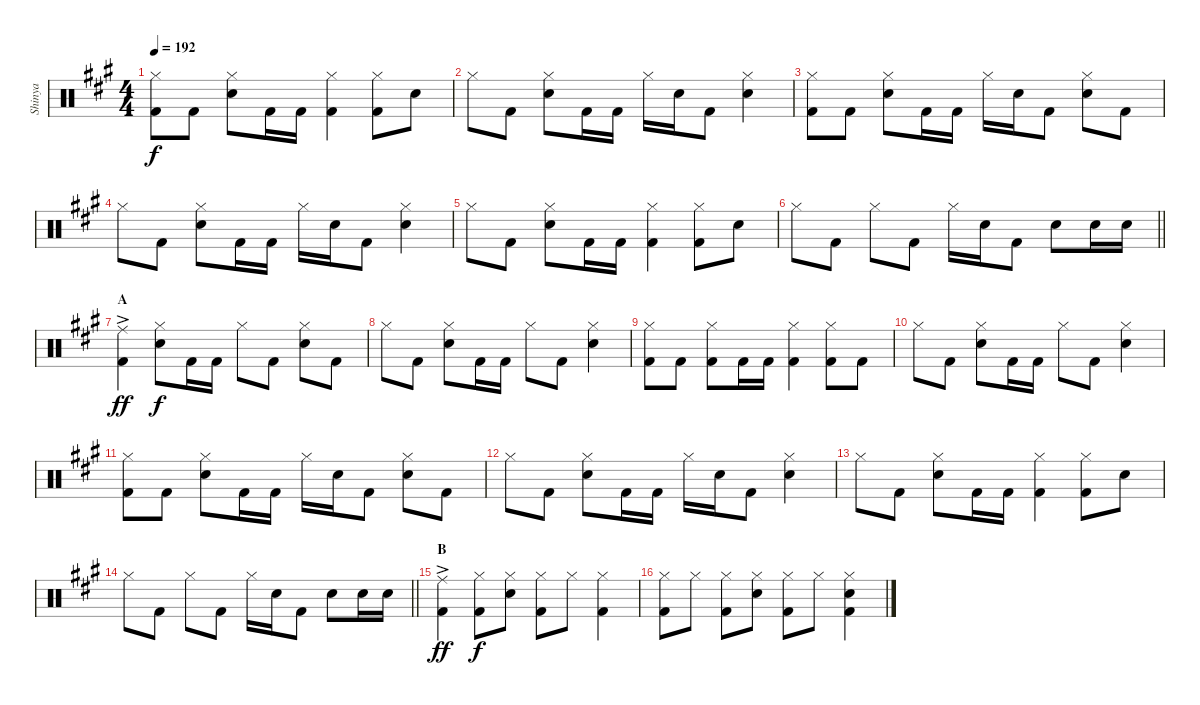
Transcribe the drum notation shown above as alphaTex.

\track ("Shinya" "Shinya") {instrument percussion}
\staff {score}
\articulation defaults
\ts (4 4)
\tempo 192
\clef neutral
\ks a
("Hi-Hat (closed)" "Kick (hit) 2").8{dy f} "Kick (hit) 2".8 ("Hi-Hat (closed)" "Snare (hit) 2").8 "Kick (hit) 2".16 "Kick (hit) 2".16 ("Hi-Hat (closed)" "Kick (hit) 2").4 ("Hi-Hat (closed)" "Kick (hit) 2").8 "Snare (hit) 2".8 |
"Hi-Hat (closed)".8 "Kick (hit) 2".8 ("Hi-Hat (closed)" "Snare (hit) 2").8 "Kick (hit) 2".16 "Kick (hit) 2".16 "Hi-Hat (closed)".16 "Snare (hit) 2".16 "Kick (hit) 2".8 ("Hi-Hat (closed)" "Snare (hit) 2").4 |
("Hi-Hat (closed)" "Kick (hit) 2").8 "Kick (hit) 2".8 ("Hi-Hat (closed)" "Snare (hit) 2").8 "Kick (hit) 2".16 "Kick (hit) 2".16 "Hi-Hat (closed)".16 "Snare (hit) 2".16 "Kick (hit) 2".8 ("Hi-Hat (closed)" "Snare (hit) 2").8 "Kick (hit) 2".8 |
"Hi-Hat (closed)".8 "Kick (hit) 2".8 ("Hi-Hat (closed)" "Snare (hit) 2").8 "Kick (hit) 2".16 "Kick (hit) 2".16 "Hi-Hat (closed)".16 "Snare (hit) 2".16 "Kick (hit) 2".8 ("Hi-Hat (closed)" "Snare (hit) 2").4 |
"Hi-Hat (closed)".8 "Kick (hit) 2".8 ("Hi-Hat (closed)" "Snare (hit) 2").8 "Kick (hit) 2".16 "Kick (hit) 2".16 ("Hi-Hat (closed)" "Kick (hit) 2").4 ("Hi-Hat (closed)" "Kick (hit) 2").8 "Snare (hit) 2".8 |
\barLineRight lightlight "Hi-Hat (closed)".8 "Kick (hit) 2".8 "Hi-Hat (closed)".8 "Kick (hit) 2".8 "Hi-Hat (closed)".16 "Snare (hit) 2".16 "Kick (hit) 2".8 "Snare (hit) 2".8 "Snare (hit) 2".16 "Snare (hit) 2".16
|
\section ("" "A")
("Ride (middle)"{ac} "Kick (hit) 2").4{dy ff} ("Hi-Hat (closed)" "Snare (hit) 2").8{dy f} "Kick (hit) 2".16 "Kick (hit) 2".16 "Hi-Hat (closed)".8 "Kick (hit) 2".8 ("Hi-Hat (closed)" "Snare (hit) 2").8 "Kick (hit) 2".8 |
"Hi-Hat (closed)".8 "Kick (hit) 2".8 ("Hi-Hat (closed)" "Snare (hit) 2").8 "Kick (hit) 2".16 "Kick (hit) 2".16 "Hi-Hat (closed)".8 "Kick (hit) 2".8 ("Hi-Hat (closed)" "Snare (hit) 2").4 |
("Hi-Hat (closed)" "Kick (hit) 2").8 "Kick (hit) 2".8 ("Hi-Hat (closed)" "Kick (hit) 2").8 "Kick (hit) 2".16 "Kick (hit) 2".16 ("Hi-Hat (closed)" "Kick (hit) 2").4 ("Hi-Hat (closed)" "Kick (hit) 2").8 "Kick (hit) 2".8 |
"Hi-Hat (closed)".8 "Kick (hit) 2".8 ("Hi-Hat (closed)" "Snare (hit) 2").8 "Kick (hit) 2".16 "Kick (hit) 2".16 "Hi-Hat (closed)".8 "Kick (hit) 2".8 ("Hi-Hat (closed)" "Snare (hit) 2").4 |
("Hi-Hat (closed)" "Kick (hit) 2").8 "Kick (hit) 2".8 ("Hi-Hat (closed)" "Snare (hit) 2").8 "Kick (hit) 2".16 "Kick (hit) 2".16 "Hi-Hat (closed)".16 "Snare (hit) 2".16 "Kick (hit) 2".8 ("Hi-Hat (closed)" "Snare (hit) 2").8 "Kick (hit) 2".8 |
"Hi-Hat (closed)".8 "Kick (hit) 2".8 ("Hi-Hat (closed)" "Snare (hit) 2").8 "Kick (hit) 2".16 "Kick (hit) 2".16 "Hi-Hat (closed)".16 "Snare (hit) 2".16 "Kick (hit) 2".8 ("Hi-Hat (closed)" "Snare (hit) 2").4 |
"Hi-Hat (closed)".8 "Kick (hit) 2".8 ("Hi-Hat (closed)" "Snare (hit) 2").8 "Kick (hit) 2".16 "Kick (hit) 2".16 ("Hi-Hat (closed)" "Kick (hit) 2").4 ("Hi-Hat (closed)" "Kick (hit) 2").8 "Snare (hit) 2".8 |
\barLineRight lightlight "Hi-Hat (closed)".8 "Kick (hit) 2".8 "Hi-Hat (closed)".8 "Kick (hit) 2".8 "Hi-Hat (closed)".16 "Snare (hit) 2".16 "Kick (hit) 2".8 "Snare (hit) 2".8 "Snare (hit) 2".16 "Snare (hit) 2".16
|
\section ("" "B")
("Ride (middle)"{ac} "Kick (hit) 2").4{dy ff} ("Hi-Hat (closed)" "Kick (hit) 2").8{dy f} ("Hi-Hat (closed)" "Snare (hit) 2").8 ("Hi-Hat (closed)" "Kick (hit) 2").8 "Hi-Hat (closed)".8 ("Hi-Hat (closed)" "Kick (hit) 2").4 |
("Hi-Hat (closed)" "Kick (hit) 2").8 "Hi-Hat (closed)".8 ("Hi-Hat (closed)" "Kick (hit) 2").8 ("Hi-Hat (closed)" "Snare (hit) 2").8 ("Hi-Hat (closed)" "Kick (hit) 2").8 "Hi-Hat (closed)".8 ("Hi-Hat (closed)" "Snare (hit) 2" "Kick (hit) 2").4
